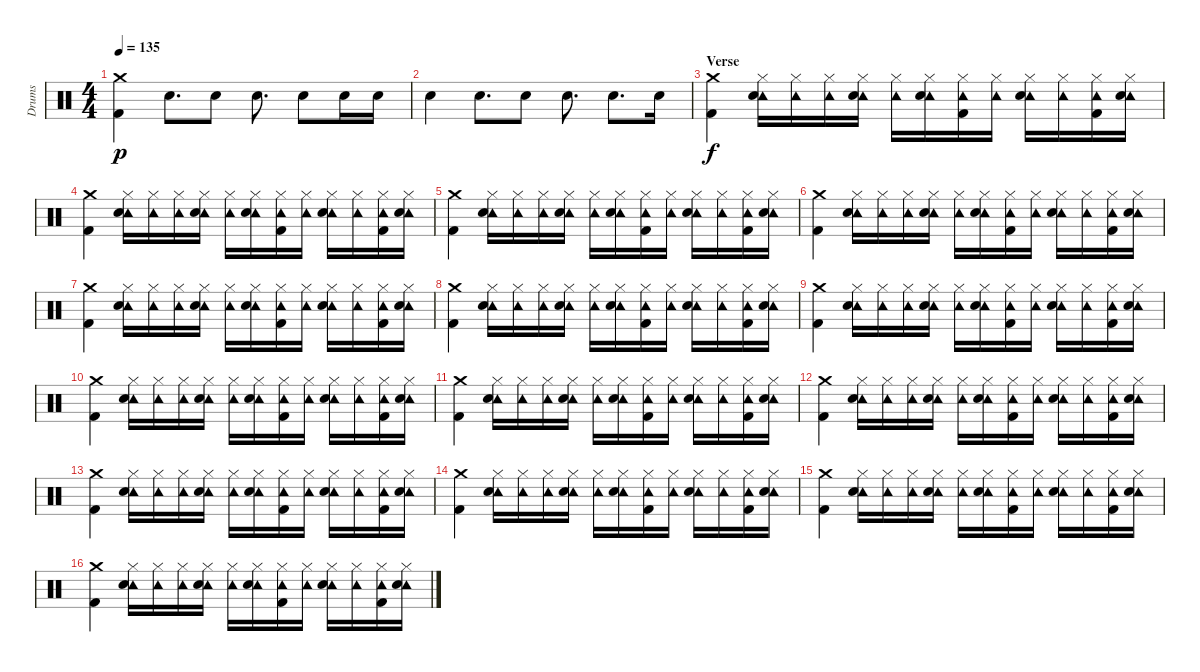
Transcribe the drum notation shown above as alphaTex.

\track ("Drums" "Drums") {instrument percussion}
\staff {score}
\articulation defaults
\ts (4 4)
\tempo 135
\clef neutral
\ks c
("Crash medium (hit)" "Kick (hit) 2").4{dy p} "Snare (hit) 2".8{d} "Snare (hit) 2".8 "Snare (hit) 2".8{d} "Snare (hit) 2".8 "Snare (hit) 2".16 "Snare (hit) 2".16 |
"Snare (hit) 2".4 "Snare (hit) 2".8{d} "Snare (hit) 2".8 "Snare (hit) 2".8{d} "Snare (hit) 2".8{d} "Snare (hit) 2".16 |
\section ("" "Verse")
("Crash medium (hit)" "Kick (hit) 2").4{dy f} ("Hi-Hat (closed)" "Tambourine (hit)" "Snare (hit) 2").16 ("Hi-Hat (closed)" "Tambourine (hit)").16 ("Hi-Hat (closed)" "Tambourine (hit)").16 ("Hi-Hat (closed)" "Tambourine (hit)" "Snare (hit) 2").16 ("Hi-Hat (closed)" "Tambourine (hit)").16 ("Hi-Hat (closed)" "Tambourine (hit)" "Snare (hit) 2").16 ("Hi-Hat (closed)" "Tambourine (hit)" "Kick (hit) 2").16 ("Hi-Hat (closed)" "Tambourine (hit)").16 ("Hi-Hat (closed)" "Tambourine (hit)" "Snare (hit) 2").16 ("Hi-Hat (closed)" "Tambourine (hit)").16 ("Hi-Hat (closed)" "Tambourine (hit)" "Kick (hit) 2").16 ("Hi-Hat (closed)" "Tambourine (hit)" "Snare (hit) 2").16 |
("Crash medium (hit)" "Kick (hit) 2").4 ("Hi-Hat (closed)" "Tambourine (hit)" "Snare (hit) 2").16 ("Hi-Hat (closed)" "Tambourine (hit)").16 ("Hi-Hat (closed)" "Tambourine (hit)").16 ("Hi-Hat (closed)" "Tambourine (hit)" "Snare (hit) 2").16 ("Hi-Hat (closed)" "Tambourine (hit)").16 ("Hi-Hat (closed)" "Tambourine (hit)" "Snare (hit) 2").16 ("Hi-Hat (closed)" "Tambourine (hit)" "Kick (hit) 2").16 ("Hi-Hat (closed)" "Tambourine (hit)").16 ("Hi-Hat (closed)" "Tambourine (hit)" "Snare (hit) 2").16 ("Hi-Hat (closed)" "Tambourine (hit)").16 ("Hi-Hat (closed)" "Tambourine (hit)" "Kick (hit) 2").16 ("Hi-Hat (closed)" "Tambourine (hit)" "Snare (hit) 2").16 |
("Crash medium (hit)" "Kick (hit) 2").4 ("Hi-Hat (closed)" "Tambourine (hit)" "Snare (hit) 2").16 ("Hi-Hat (closed)" "Tambourine (hit)").16 ("Hi-Hat (closed)" "Tambourine (hit)").16 ("Hi-Hat (closed)" "Tambourine (hit)" "Snare (hit) 2").16 ("Hi-Hat (closed)" "Tambourine (hit)").16 ("Hi-Hat (closed)" "Tambourine (hit)" "Snare (hit) 2").16 ("Hi-Hat (closed)" "Tambourine (hit)" "Kick (hit) 2").16 ("Hi-Hat (closed)" "Tambourine (hit)").16 ("Hi-Hat (closed)" "Tambourine (hit)" "Snare (hit) 2").16 ("Hi-Hat (closed)" "Tambourine (hit)").16 ("Hi-Hat (closed)" "Tambourine (hit)" "Kick (hit) 2").16 ("Hi-Hat (closed)" "Tambourine (hit)" "Snare (hit) 2").16 |
("Crash medium (hit)" "Kick (hit) 2").4 ("Hi-Hat (closed)" "Tambourine (hit)" "Snare (hit) 2").16 ("Hi-Hat (closed)" "Tambourine (hit)").16 ("Hi-Hat (closed)" "Tambourine (hit)").16 ("Hi-Hat (closed)" "Tambourine (hit)" "Snare (hit) 2").16 ("Hi-Hat (closed)" "Tambourine (hit)").16 ("Hi-Hat (closed)" "Tambourine (hit)" "Snare (hit) 2").16 ("Hi-Hat (closed)" "Tambourine (hit)" "Kick (hit) 2").16 ("Hi-Hat (closed)" "Tambourine (hit)").16 ("Hi-Hat (closed)" "Tambourine (hit)" "Snare (hit) 2").16 ("Hi-Hat (closed)" "Tambourine (hit)").16 ("Hi-Hat (closed)" "Tambourine (hit)" "Kick (hit) 2").16 ("Hi-Hat (closed)" "Tambourine (hit)" "Snare (hit) 2").16 |
("Crash medium (hit)" "Kick (hit) 2").4 ("Hi-Hat (closed)" "Tambourine (hit)" "Snare (hit) 2").16 ("Hi-Hat (closed)" "Tambourine (hit)").16 ("Hi-Hat (closed)" "Tambourine (hit)").16 ("Hi-Hat (closed)" "Tambourine (hit)" "Snare (hit) 2").16 ("Hi-Hat (closed)" "Tambourine (hit)").16 ("Hi-Hat (closed)" "Tambourine (hit)" "Snare (hit) 2").16 ("Hi-Hat (closed)" "Tambourine (hit)" "Kick (hit) 2").16 ("Hi-Hat (closed)" "Tambourine (hit)").16 ("Hi-Hat (closed)" "Tambourine (hit)" "Snare (hit) 2").16 ("Hi-Hat (closed)" "Tambourine (hit)").16 ("Hi-Hat (closed)" "Tambourine (hit)" "Kick (hit) 2").16 ("Hi-Hat (closed)" "Tambourine (hit)" "Snare (hit) 2").16 |
("Crash medium (hit)" "Kick (hit) 2").4 ("Hi-Hat (closed)" "Tambourine (hit)" "Snare (hit) 2").16 ("Hi-Hat (closed)" "Tambourine (hit)").16 ("Hi-Hat (closed)" "Tambourine (hit)").16 ("Hi-Hat (closed)" "Tambourine (hit)" "Snare (hit) 2").16 ("Hi-Hat (closed)" "Tambourine (hit)").16 ("Hi-Hat (closed)" "Tambourine (hit)" "Snare (hit) 2").16 ("Hi-Hat (closed)" "Tambourine (hit)" "Kick (hit) 2").16 ("Hi-Hat (closed)" "Tambourine (hit)").16 ("Hi-Hat (closed)" "Tambourine (hit)" "Snare (hit) 2").16 ("Hi-Hat (closed)" "Tambourine (hit)").16 ("Hi-Hat (closed)" "Tambourine (hit)" "Kick (hit) 2").16 ("Hi-Hat (closed)" "Tambourine (hit)" "Snare (hit) 2").16 |
("Crash medium (hit)" "Kick (hit) 2").4 ("Hi-Hat (closed)" "Tambourine (hit)" "Snare (hit) 2").16 ("Hi-Hat (closed)" "Tambourine (hit)").16 ("Hi-Hat (closed)" "Tambourine (hit)").16 ("Hi-Hat (closed)" "Tambourine (hit)" "Snare (hit) 2").16 ("Hi-Hat (closed)" "Tambourine (hit)").16 ("Hi-Hat (closed)" "Tambourine (hit)" "Snare (hit) 2").16 ("Hi-Hat (closed)" "Tambourine (hit)" "Kick (hit) 2").16 ("Hi-Hat (closed)" "Tambourine (hit)").16 ("Hi-Hat (closed)" "Tambourine (hit)" "Snare (hit) 2").16 ("Hi-Hat (closed)" "Tambourine (hit)").16 ("Hi-Hat (closed)" "Tambourine (hit)" "Kick (hit) 2").16 ("Hi-Hat (closed)" "Tambourine (hit)" "Snare (hit) 2").16 |
("Crash medium (hit)" "Kick (hit) 2").4 ("Hi-Hat (closed)" "Tambourine (hit)" "Snare (hit) 2").16 ("Hi-Hat (closed)" "Tambourine (hit)").16 ("Hi-Hat (closed)" "Tambourine (hit)").16 ("Hi-Hat (closed)" "Tambourine (hit)" "Snare (hit) 2").16 ("Hi-Hat (closed)" "Tambourine (hit)").16 ("Hi-Hat (closed)" "Tambourine (hit)" "Snare (hit) 2").16 ("Hi-Hat (closed)" "Tambourine (hit)" "Kick (hit) 2").16 ("Hi-Hat (closed)" "Tambourine (hit)").16 ("Hi-Hat (closed)" "Tambourine (hit)" "Snare (hit) 2").16 ("Hi-Hat (closed)" "Tambourine (hit)").16 ("Hi-Hat (closed)" "Tambourine (hit)" "Kick (hit) 2").16 ("Hi-Hat (closed)" "Tambourine (hit)" "Snare (hit) 2").16 |
("Crash medium (hit)" "Kick (hit) 2").4 ("Hi-Hat (closed)" "Tambourine (hit)" "Snare (hit) 2").16 ("Hi-Hat (closed)" "Tambourine (hit)").16 ("Hi-Hat (closed)" "Tambourine (hit)").16 ("Hi-Hat (closed)" "Tambourine (hit)" "Snare (hit) 2").16 ("Hi-Hat (closed)" "Tambourine (hit)").16 ("Hi-Hat (closed)" "Tambourine (hit)" "Snare (hit) 2").16 ("Hi-Hat (closed)" "Tambourine (hit)" "Kick (hit) 2").16 ("Hi-Hat (closed)" "Tambourine (hit)").16 ("Hi-Hat (closed)" "Tambourine (hit)" "Snare (hit) 2").16 ("Hi-Hat (closed)" "Tambourine (hit)").16 ("Hi-Hat (closed)" "Tambourine (hit)" "Kick (hit) 2").16 ("Hi-Hat (closed)" "Tambourine (hit)" "Snare (hit) 2").16 |
("Crash medium (hit)" "Kick (hit) 2").4 ("Hi-Hat (closed)" "Tambourine (hit)" "Snare (hit) 2").16 ("Hi-Hat (closed)" "Tambourine (hit)").16 ("Hi-Hat (closed)" "Tambourine (hit)").16 ("Hi-Hat (closed)" "Tambourine (hit)" "Snare (hit) 2").16 ("Hi-Hat (closed)" "Tambourine (hit)").16 ("Hi-Hat (closed)" "Tambourine (hit)" "Snare (hit) 2").16 ("Hi-Hat (closed)" "Tambourine (hit)" "Kick (hit) 2").16 ("Hi-Hat (closed)" "Tambourine (hit)").16 ("Hi-Hat (closed)" "Tambourine (hit)" "Snare (hit) 2").16 ("Hi-Hat (closed)" "Tambourine (hit)").16 ("Hi-Hat (closed)" "Tambourine (hit)" "Kick (hit) 2").16 ("Hi-Hat (closed)" "Tambourine (hit)" "Snare (hit) 2").16 |
("Crash medium (hit)" "Kick (hit) 2").4 ("Hi-Hat (closed)" "Tambourine (hit)" "Snare (hit) 2").16 ("Hi-Hat (closed)" "Tambourine (hit)").16 ("Hi-Hat (closed)" "Tambourine (hit)").16 ("Hi-Hat (closed)" "Tambourine (hit)" "Snare (hit) 2").16 ("Hi-Hat (closed)" "Tambourine (hit)").16 ("Hi-Hat (closed)" "Tambourine (hit)" "Snare (hit) 2").16 ("Hi-Hat (closed)" "Tambourine (hit)" "Kick (hit) 2").16 ("Hi-Hat (closed)" "Tambourine (hit)").16 ("Hi-Hat (closed)" "Tambourine (hit)" "Snare (hit) 2").16 ("Hi-Hat (closed)" "Tambourine (hit)").16 ("Hi-Hat (closed)" "Tambourine (hit)" "Kick (hit) 2").16 ("Hi-Hat (closed)" "Tambourine (hit)" "Snare (hit) 2").16 |
("Crash medium (hit)" "Kick (hit) 2").4 ("Hi-Hat (closed)" "Tambourine (hit)" "Snare (hit) 2").16 ("Hi-Hat (closed)" "Tambourine (hit)").16 ("Hi-Hat (closed)" "Tambourine (hit)").16 ("Hi-Hat (closed)" "Tambourine (hit)" "Snare (hit) 2").16 ("Hi-Hat (closed)" "Tambourine (hit)").16 ("Hi-Hat (closed)" "Tambourine (hit)" "Snare (hit) 2").16 ("Hi-Hat (closed)" "Tambourine (hit)" "Kick (hit) 2").16 ("Hi-Hat (closed)" "Tambourine (hit)").16 ("Hi-Hat (closed)" "Tambourine (hit)" "Snare (hit) 2").16 ("Hi-Hat (closed)" "Tambourine (hit)").16 ("Hi-Hat (closed)" "Tambourine (hit)" "Kick (hit) 2").16 ("Hi-Hat (closed)" "Tambourine (hit)" "Snare (hit) 2").16 |
("Crash medium (hit)" "Kick (hit) 2").4 ("Hi-Hat (closed)" "Tambourine (hit)" "Snare (hit) 2").16 ("Hi-Hat (closed)" "Tambourine (hit)").16 ("Hi-Hat (closed)" "Tambourine (hit)").16 ("Hi-Hat (closed)" "Tambourine (hit)" "Snare (hit) 2").16 ("Hi-Hat (closed)" "Tambourine (hit)").16 ("Hi-Hat (closed)" "Tambourine (hit)" "Snare (hit) 2").16 ("Hi-Hat (closed)" "Tambourine (hit)" "Kick (hit) 2").16 ("Hi-Hat (closed)" "Tambourine (hit)").16 ("Hi-Hat (closed)" "Tambourine (hit)" "Snare (hit) 2").16 ("Hi-Hat (closed)" "Tambourine (hit)").16 ("Hi-Hat (closed)" "Tambourine (hit)" "Kick (hit) 2").16 ("Hi-Hat (closed)" "Tambourine (hit)" "Snare (hit) 2").16 |
("Crash medium (hit)" "Kick (hit) 2").4 ("Hi-Hat (closed)" "Tambourine (hit)" "Snare (hit) 2").16 ("Hi-Hat (closed)" "Tambourine (hit)").16 ("Hi-Hat (closed)" "Tambourine (hit)").16 ("Hi-Hat (closed)" "Tambourine (hit)" "Snare (hit) 2").16 ("Hi-Hat (closed)" "Tambourine (hit)").16 ("Hi-Hat (closed)" "Tambourine (hit)" "Snare (hit) 2").16 ("Hi-Hat (closed)" "Tambourine (hit)" "Kick (hit) 2").16 ("Hi-Hat (closed)" "Tambourine (hit)").16 ("Hi-Hat (closed)" "Tambourine (hit)" "Snare (hit) 2").16 ("Hi-Hat (closed)" "Tambourine (hit)").16 ("Hi-Hat (closed)" "Tambourine (hit)" "Kick (hit) 2").16 ("Hi-Hat (closed)" "Tambourine (hit)" "Snare (hit) 2").16
